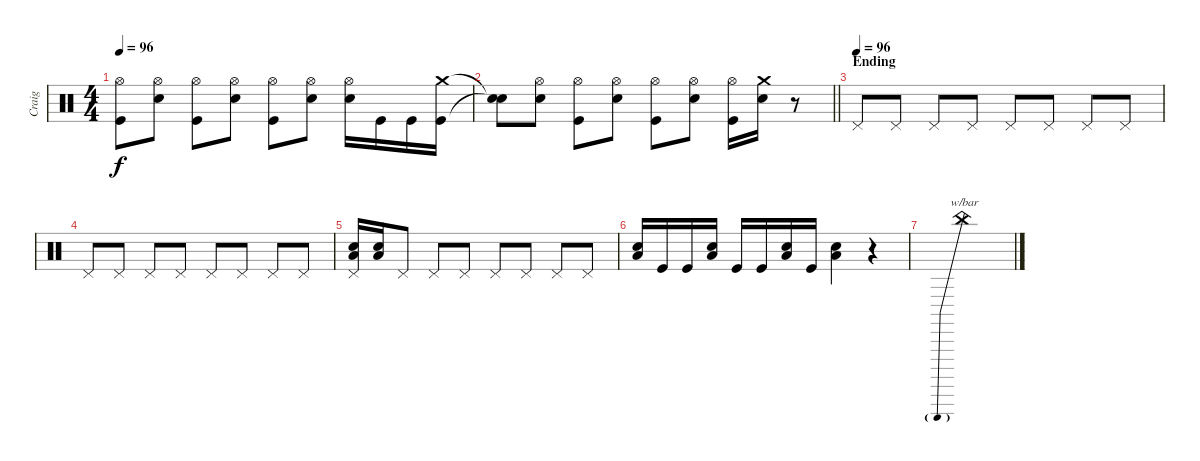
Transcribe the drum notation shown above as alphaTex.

\track ("Craig" "Craig") {instrument percussion}
\staff {score}
\articulation defaults
\ts (4 4)
\tempo 96
\clef neutral
\ks c
("Hi-Hat (open)" "Kick (hit)").8{dy f} ("Hi-Hat (open)" "Snare (hit) 2").8 ("Hi-Hat (open)" "Kick (hit)").8 ("Hi-Hat (open)" "Snare (hit) 2").8 ("Hi-Hat (open)" "Kick (hit)").8 ("Hi-Hat (open)" "Snare (hit) 2").8 ("Hi-Hat (open)" "Snare (hit) 2").16 "Kick (hit)".16 "Kick (hit)".16 ("Crash medium (hit)" "Kick (hit)").16 |
\barLineRight lightlight
("Snare (hit)"{t} "Snare (hit)"{t}).8 ("Hi-Hat (open)" "Snare (hit) 2").8 ("Hi-Hat (open)" "Kick (hit)").8 ("Hi-Hat (open)" "Snare (hit) 2").8 ("Hi-Hat (open)" "Kick (hit)").8 ("Hi-Hat (open)" "Snare (hit) 2").8 ("Hi-Hat (open)" "Kick (hit)").16 ("Crash medium (hit)" "Snare (hit) 2").16 r.8 |
\section ("" "Ending")
\tempo (96)
"Pedal Hi-Hat (hit)".8 "Pedal Hi-Hat (hit)".8 "Pedal Hi-Hat (hit)".8 "Pedal Hi-Hat (hit)".8 "Pedal Hi-Hat (hit)".8 "Pedal Hi-Hat (hit)".8 "Pedal Hi-Hat (hit)".8 "Pedal Hi-Hat (hit)".8 |
"Pedal Hi-Hat (hit)".8 "Pedal Hi-Hat (hit)".8 "Pedal Hi-Hat (hit)".8 "Pedal Hi-Hat (hit)".8 "Pedal Hi-Hat (hit)".8 "Pedal Hi-Hat (hit)".8 "Pedal Hi-Hat (hit)".8 "Pedal Hi-Hat (hit)".8 |
("Pedal Hi-Hat (hit)" "Low Floor Tom (hit)" "Snare (hit) 2").16 ("Low Floor Tom (hit)" "Snare (hit) 2").16 "Pedal Hi-Hat (hit)".8 "Pedal Hi-Hat (hit)".8 "Pedal Hi-Hat (hit)".8 "Pedal Hi-Hat (hit)".8 "Pedal Hi-Hat (hit)".8 "Pedal Hi-Hat (hit)".8 "Pedal Hi-Hat (hit)".8 |
("Low Tom (hit)" "Snare (hit) 2").16 "Kick (hit)".16 "Kick (hit)".16 ("Low Tom (hit)" "Snare (hit) 2").16 "Kick (hit)".16 "Kick (hit)".16 ("Low Tom (hit)" "Snare (hit) 2").16 "Kick (hit)".16 ("Low Tom (hit)" "Snare (hit) 2").4 r.4 |
"China (hit)".1{tbe (predive default 0 -24 60 -24) volume 6}
